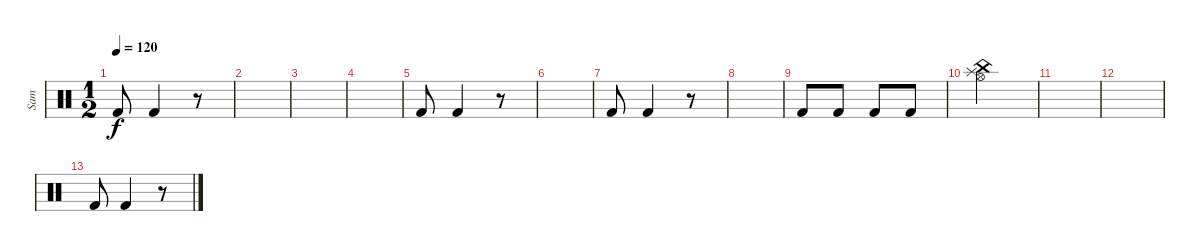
\track ("Sam" "Sam") {instrument percussion}
\staff {score}
\articulation defaults
\ts (1 2)
\tempo 120
\clef neutral
\ks c "Kick (hit) 2".8{dy f} "Kick (hit) 2".4
r.8 |
|
|
|
"Kick (hit) 2".8 "Kick (hit) 2".4 r.8 |
|
"Kick (hit) 2".8 "Kick (hit) 2".4 r.8 |
|
"Kick (hit) 2".8 "Kick (hit) 2".8 "Kick (hit) 2".8 "Kick (hit) 2".8 |
("Hi-Hat (open)" "Splash (hit)" "China (hit)").2 |
|
|
"Kick (hit) 2".8 "Kick (hit) 2".4 r.8
